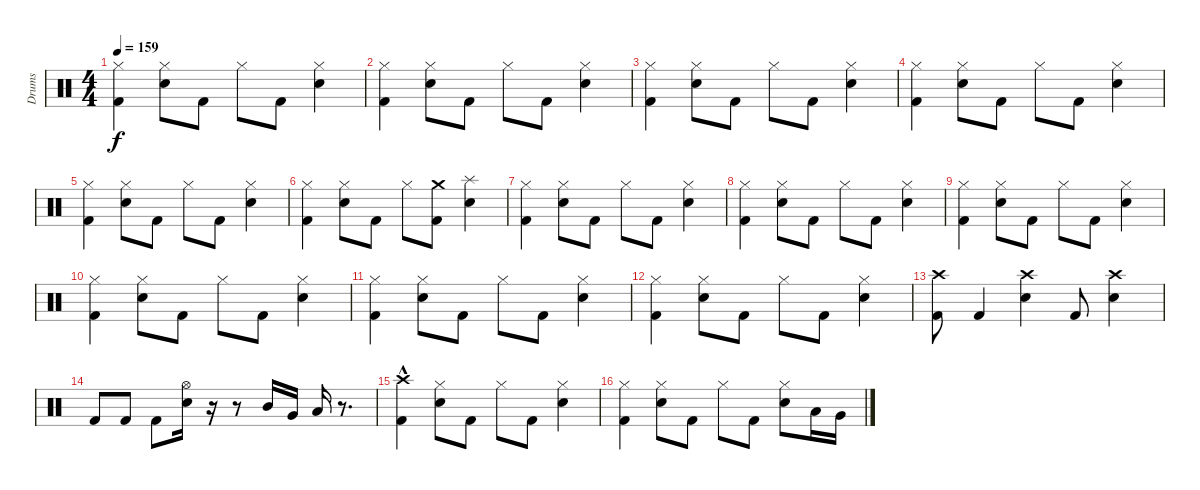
\track ("Drums" "Drums") {instrument percussion}
\staff {score}
\articulation defaults
\ts (4 4)
\tempo 159
\clef neutral
\ks c
("Hi-Hat (closed)" "Kick (hit) 2").4{dy f} ("Hi-Hat (closed)" "Electric Snare (hit)").8 "Kick (hit) 2".8 "Hi-Hat (closed)".8 "Kick (hit) 2".8 ("Hi-Hat (closed)" "Electric Snare (hit)").4 |
("Hi-Hat (closed)" "Kick (hit) 2").4 ("Hi-Hat (closed)" "Electric Snare (hit)").8 "Kick (hit) 2".8 "Hi-Hat (closed)".8 "Kick (hit) 2".8 ("Hi-Hat (closed)" "Electric Snare (hit)").4 |
("Hi-Hat (closed)" "Kick (hit) 2").4 ("Hi-Hat (closed)" "Electric Snare (hit)").8 "Kick (hit) 2".8 "Hi-Hat (closed)".8 "Kick (hit) 2".8 ("Hi-Hat (closed)" "Electric Snare (hit)").4 |
("Hi-Hat (closed)" "Kick (hit) 2").4 ("Hi-Hat (closed)" "Electric Snare (hit)").8 "Kick (hit) 2".8 "Hi-Hat (closed)".8 "Kick (hit) 2".8 ("Hi-Hat (closed)" "Electric Snare (hit)").4 |
("Hi-Hat (closed)" "Kick (hit) 2").4 ("Hi-Hat (closed)" "Electric Snare (hit)").8 "Kick (hit) 2".8 "Hi-Hat (closed)".8 "Kick (hit) 2".8 ("Hi-Hat (closed)" "Electric Snare (hit)").4 |
("Hi-Hat (closed)" "Kick (hit) 2").4 ("Hi-Hat (closed)" "Electric Snare (hit)").8 "Kick (hit) 2".8 "Hi-Hat (closed)".8 ("Crash medium (hit)" "Kick (hit) 2").8 ("Splash (hit)" "Electric Snare (hit)").4 |
("Hi-Hat (closed)" "Kick (hit) 2").4 ("Hi-Hat (closed)" "Electric Snare (hit)").8 "Kick (hit) 2".8 "Hi-Hat (closed)".8 "Kick (hit) 2".8 ("Hi-Hat (closed)" "Electric Snare (hit)").4 |
("Hi-Hat (closed)" "Kick (hit) 2").4 ("Hi-Hat (closed)" "Electric Snare (hit)").8 "Kick (hit) 2".8 "Hi-Hat (closed)".8 "Kick (hit) 2".8 ("Hi-Hat (closed)" "Electric Snare (hit)").4 |
("Hi-Hat (closed)" "Kick (hit) 2").4 ("Hi-Hat (closed)" "Electric Snare (hit)").8 "Kick (hit) 2".8 "Hi-Hat (closed)".8 "Kick (hit) 2".8 ("Hi-Hat (closed)" "Electric Snare (hit)").4 |
("Hi-Hat (closed)" "Kick (hit) 2").4 ("Hi-Hat (closed)" "Electric Snare (hit)").8 "Kick (hit) 2".8 "Hi-Hat (closed)".8 "Kick (hit) 2".8 ("Hi-Hat (closed)" "Electric Snare (hit)").4 |
("Hi-Hat (closed)" "Kick (hit) 2").4 ("Hi-Hat (closed)" "Electric Snare (hit)").8 "Kick (hit) 2".8 "Hi-Hat (closed)".8 "Kick (hit) 2".8 ("Hi-Hat (closed)" "Electric Snare (hit)").4 |
("Hi-Hat (closed)" "Kick (hit) 2").4 ("Hi-Hat (closed)" "Electric Snare (hit)").8 "Kick (hit) 2".8 "Hi-Hat (closed)".8 "Kick (hit) 2".8 ("Hi-Hat (closed)" "Electric Snare (hit)").4 |
("Crash high (hit)" "Kick (hit) 2").8 "Kick (hit) 2".4 ("Crash high (hit)" "Electric Snare (hit)").4 "Kick (hit) 2".8 ("Crash high (hit)" "Electric Snare (hit)").4 |
"Kick (hit) 2".8 "Kick (hit) 2".8 "Kick (hit) 2".8 ("Hi-Hat (open)" "Electric Snare (hit)").16 r.16 r.8 "Mid Tom (hit)".16 "Very Low Tom (hit)".16 "Low Floor Tom (hit)".16 r.8{d} |
("Crash high (hit)"{hac} "Kick (hit) 2").4 ("Hi-Hat (closed)" "Electric Snare (hit)").8 "Kick (hit) 2".8 "Hi-Hat (closed)".8 "Kick (hit) 2".8 ("Hi-Hat (closed)" "Electric Snare (hit)").4 |
("Hi-Hat (closed)" "Kick (hit) 2").4 ("Hi-Hat (closed)" "Electric Snare (hit)").8 "Kick (hit) 2".8 "Hi-Hat (closed)".8 "Kick (hit) 2".8 ("Hi-Hat (closed)" "Electric Snare (hit)").8 "Low Tom (hit)".16 "Very Low Tom (hit)".16
